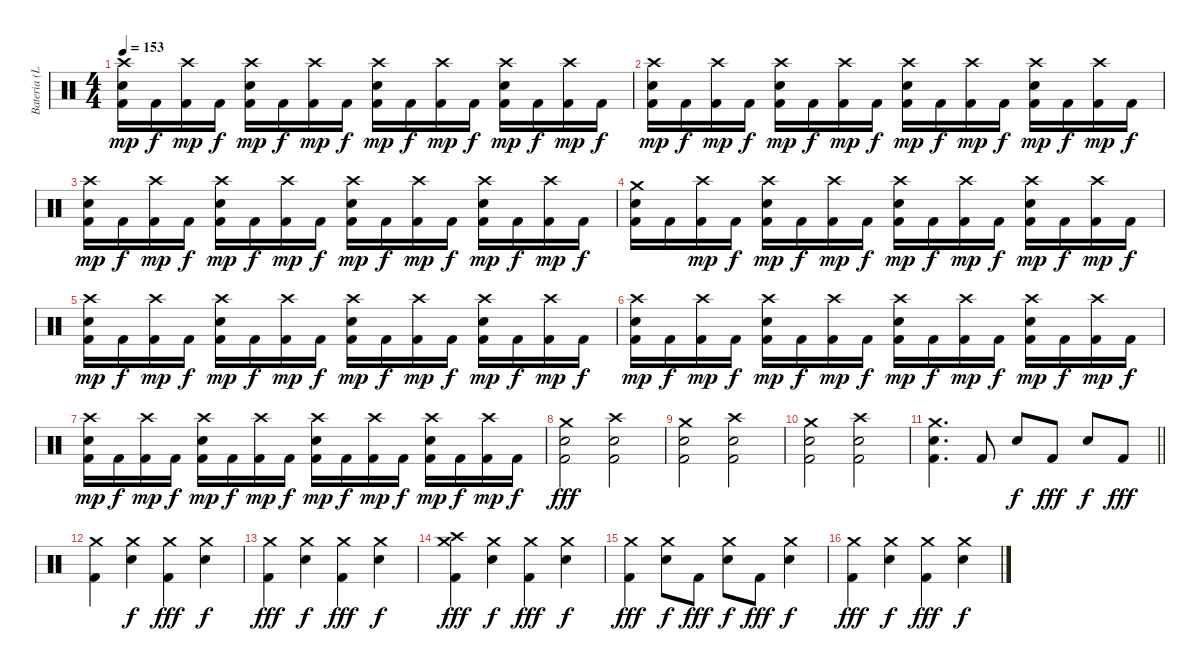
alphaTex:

\track ("Bateria (Lars)" "Bateria (L") {instrument percussion}
\staff {score}
\articulation defaults
\ts (4 4)
\tempo 153
\clef neutral
\ks c
("Crash high (hit)" "Electric Snare (hit)" "Kick (hit) 2").16{dy mp} "Kick (hit) 2".16{dy f} ("Crash high (hit)" "Kick (hit) 2").16{dy mp} "Kick (hit) 2".16{dy f} ("Crash high (hit)" "Electric Snare (hit)" "Kick (hit) 2").16{dy mp} "Kick (hit) 2".16{dy f} ("Crash high (hit)" "Kick (hit) 2").16{dy mp} "Kick (hit) 2".16{dy f} ("Crash high (hit)" "Electric Snare (hit)" "Kick (hit) 2").16{dy mp} "Kick (hit) 2".16{dy f} ("Crash high (hit)" "Kick (hit) 2").16{dy mp} "Kick (hit) 2".16{dy f} ("Crash high (hit)" "Electric Snare (hit)" "Kick (hit) 2").16{dy mp} "Kick (hit) 2".16{dy f} ("Crash high (hit)" "Kick (hit) 2").16{dy mp} "Kick (hit) 2".16{dy f} |
("Crash high (hit)" "Electric Snare (hit)" "Kick (hit) 2").16{dy mp} "Kick (hit) 2".16{dy f} ("Crash high (hit)" "Kick (hit) 2").16{dy mp} "Kick (hit) 2".16{dy f} ("Crash high (hit)" "Electric Snare (hit)" "Kick (hit) 2").16{dy mp} "Kick (hit) 2".16{dy f} ("Crash high (hit)" "Kick (hit) 2").16{dy mp} "Kick (hit) 2".16{dy f} ("Crash high (hit)" "Electric Snare (hit)" "Kick (hit) 2").16{dy mp} "Kick (hit) 2".16{dy f} ("Crash high (hit)" "Kick (hit) 2").16{dy mp} "Kick (hit) 2".16{dy f} ("Crash high (hit)" "Electric Snare (hit)" "Kick (hit) 2").16{dy mp} "Kick (hit) 2".16{dy f} ("Crash high (hit)" "Kick (hit) 2").16{dy mp} "Kick (hit) 2".16{dy f} |
("Crash high (hit)" "Electric Snare (hit)" "Kick (hit) 2").16{dy mp} "Kick (hit) 2".16{dy f} ("Crash high (hit)" "Kick (hit) 2").16{dy mp} "Kick (hit) 2".16{dy f} ("Crash high (hit)" "Electric Snare (hit)" "Kick (hit) 2").16{dy mp} "Kick (hit) 2".16{dy f} ("Crash high (hit)" "Kick (hit) 2").16{dy mp} "Kick (hit) 2".16{dy f} ("Crash high (hit)" "Electric Snare (hit)" "Kick (hit) 2").16{dy mp} "Kick (hit) 2".16{dy f} ("Crash high (hit)" "Kick (hit) 2").16{dy mp} "Kick (hit) 2".16{dy f} ("Crash high (hit)" "Electric Snare (hit)" "Kick (hit) 2").16{dy mp} "Kick (hit) 2".16{dy f} ("Crash high (hit)" "Kick (hit) 2").16{dy mp} "Kick (hit) 2".16{dy f} |
("Crash medium (hit)" "Electric Snare (hit)" "Kick (hit) 2").16 "Kick (hit) 2".16 ("Crash high (hit)" "Kick (hit) 2").16{dy mp} "Kick (hit) 2".16{dy f} ("Crash high (hit)" "Electric Snare (hit)" "Kick (hit) 2").16{dy mp} "Kick (hit) 2".16{dy f} ("Crash high (hit)" "Kick (hit) 2").16{dy mp} "Kick (hit) 2".16{dy f} ("Crash high (hit)" "Electric Snare (hit)" "Kick (hit) 2").16{dy mp} "Kick (hit) 2".16{dy f} ("Crash high (hit)" "Kick (hit) 2").16{dy mp} "Kick (hit) 2".16{dy f} ("Crash high (hit)" "Electric Snare (hit)" "Kick (hit) 2").16{dy mp} "Kick (hit) 2".16{dy f} ("Crash high (hit)" "Kick (hit) 2").16{dy mp} "Kick (hit) 2".16{dy f} |
("Crash high (hit)" "Electric Snare (hit)" "Kick (hit) 2").16{dy mp} "Kick (hit) 2".16{dy f} ("Crash high (hit)" "Kick (hit) 2").16{dy mp} "Kick (hit) 2".16{dy f} ("Crash high (hit)" "Electric Snare (hit)" "Kick (hit) 2").16{dy mp} "Kick (hit) 2".16{dy f} ("Crash high (hit)" "Kick (hit) 2").16{dy mp} "Kick (hit) 2".16{dy f} ("Crash high (hit)" "Electric Snare (hit)" "Kick (hit) 2").16{dy mp} "Kick (hit) 2".16{dy f} ("Crash high (hit)" "Kick (hit) 2").16{dy mp} "Kick (hit) 2".16{dy f} ("Crash high (hit)" "Electric Snare (hit)" "Kick (hit) 2").16{dy mp} "Kick (hit) 2".16{dy f} ("Crash high (hit)" "Kick (hit) 2").16{dy mp} "Kick (hit) 2".16{dy f} |
("Crash high (hit)" "Electric Snare (hit)" "Kick (hit) 2").16{dy mp} "Kick (hit) 2".16{dy f} ("Crash high (hit)" "Kick (hit) 2").16{dy mp} "Kick (hit) 2".16{dy f} ("Crash high (hit)" "Electric Snare (hit)" "Kick (hit) 2").16{dy mp} "Kick (hit) 2".16{dy f} ("Crash high (hit)" "Kick (hit) 2").16{dy mp} "Kick (hit) 2".16{dy f} ("Crash high (hit)" "Electric Snare (hit)" "Kick (hit) 2").16{dy mp} "Kick (hit) 2".16{dy f} ("Crash high (hit)" "Kick (hit) 2").16{dy mp} "Kick (hit) 2".16{dy f} ("Crash high (hit)" "Electric Snare (hit)" "Kick (hit) 2").16{dy mp} "Kick (hit) 2".16{dy f} ("Crash high (hit)" "Kick (hit) 2").16{dy mp} "Kick (hit) 2".16{dy f} |
("Crash high (hit)" "Electric Snare (hit)" "Kick (hit) 2").16{dy mp} "Kick (hit) 2".16{dy f} ("Crash high (hit)" "Kick (hit) 2").16{dy mp} "Kick (hit) 2".16{dy f} ("Crash high (hit)" "Electric Snare (hit)" "Kick (hit) 2").16{dy mp} "Kick (hit) 2".16{dy f} ("Crash high (hit)" "Kick (hit) 2").16{dy mp} "Kick (hit) 2".16{dy f} ("Crash high (hit)" "Electric Snare (hit)" "Kick (hit) 2").16{dy mp} "Kick (hit) 2".16{dy f} ("Crash high (hit)" "Kick (hit) 2").16{dy mp} "Kick (hit) 2".16{dy f} ("Crash high (hit)" "Electric Snare (hit)" "Kick (hit) 2").16{dy mp} "Kick (hit) 2".16{dy f} ("Crash high (hit)" "Kick (hit) 2").16{dy mp} "Kick (hit) 2".16{dy f} |
("Crash medium (hit)" "Electric Snare (hit)" "Kick (hit) 2").2{dy fff} ("Crash high (hit)" "Electric Snare (hit)" "Kick (hit) 2").2 |
("Crash medium (hit)" "Electric Snare (hit)" "Kick (hit) 2").2 ("Crash high (hit)" "Electric Snare (hit)" "Kick (hit) 2").2 |
("Crash medium (hit)" "Electric Snare (hit)" "Kick (hit) 2").2 ("Crash high (hit)" "Electric Snare (hit)" "Kick (hit) 2").2 |
\barLineRight lightlight
("Crash medium (hit)" "Electric Snare (hit)" "Kick (hit) 2").4{d} "Kick (hit) 2".8 "Electric Snare (hit)".8{dy f} "Kick (hit) 2".8{dy fff} "Electric Snare (hit)".8{dy f} "Kick (hit) 2".8{dy fff} |
("Crash medium (hit)" "Kick (hit) 2").4 ("Crash medium (hit)" "Electric Snare (hit)").4{dy f} ("Crash medium (hit)" "Kick (hit) 2").4{dy fff} ("Crash medium (hit)" "Electric Snare (hit)").4{dy f} |
("Crash medium (hit)" "Kick (hit) 2").4{dy fff} ("Crash medium (hit)" "Electric Snare (hit)").4{dy f} ("Crash medium (hit)" "Kick (hit) 2").4{dy fff} ("Crash medium (hit)" "Electric Snare (hit)").4{dy f} |
("Crash medium (hit)" "Crash high (hit)" "Kick (hit) 2").4{dy fff} ("Crash medium (hit)" "Electric Snare (hit)").4{dy f} ("Crash medium (hit)" "Kick (hit) 2").4{dy fff} ("Crash medium (hit)" "Electric Snare (hit)").4{dy f} |
("Crash medium (hit)" "Kick (hit) 2").4{dy fff} ("Crash medium (hit)" "Electric Snare (hit)").8{dy f} "Kick (hit) 2".8{dy fff} ("Crash medium (hit)" "Electric Snare (hit)").8{dy f} "Kick (hit) 2".8{dy fff} ("Crash medium (hit)" "Electric Snare (hit)").4{dy f} |
("Crash medium (hit)" "Kick (hit) 2").4{dy fff} ("Crash medium (hit)" "Electric Snare (hit)").4{dy f} ("Crash medium (hit)" "Kick (hit) 2").4{dy fff} ("Crash medium (hit)" "Electric Snare (hit)").4{dy f}
